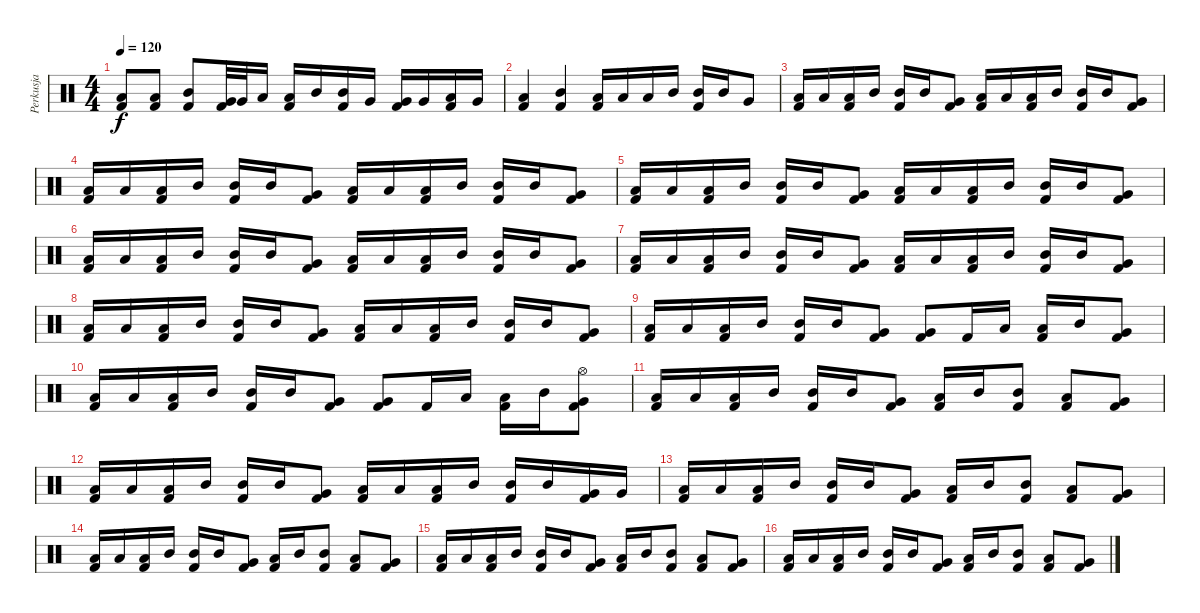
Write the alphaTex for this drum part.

\track ("Perkusja" "Perkusja") {instrument percussion}
\staff {score}
\articulation defaults
\ts (4 4)
\tempo 120
\clef neutral
\ks c
("Low Tom (hit)" "Kick (hit) 2").8{dy f} ("Low Tom (hit)" "Kick (hit) 2").8 ("Mid Tom (hit)" "Kick (hit) 2").8 ("Very Low Tom (hit)" "Kick (hit) 2").32 "Very Low Tom (hit)".32 "Low Tom (hit)".16 ("Low Tom (hit)" "Kick (hit) 2").16 "Mid Tom (hit)".16 ("Mid Tom (hit)" "Kick (hit) 2").16 "Very Low Tom (hit)".16 ("Very Low Tom (hit)" "Kick (hit) 2").16 "Very Low Tom (hit)".16 ("Low Tom (hit)" "Kick (hit) 2").16 "Very Low Tom (hit)".16 |
("Low Tom (hit)" "Kick (hit) 2").4 ("Mid Tom (hit)" "Kick (hit) 2").4 ("Low Tom (hit)" "Kick (hit) 2").16 "Low Tom (hit)".16 "Low Tom (hit)".16 "Mid Tom (hit)".16 ("Mid Tom (hit)" "Kick (hit) 2").16 "Mid Tom (hit)".16 "Very Low Tom (hit)".8 |
("Low Tom (hit)" "Kick (hit) 2").16 "Low Tom (hit)".16 ("Low Tom (hit)" "Kick (hit) 2").16 "Mid Tom (hit)".16 ("Mid Tom (hit)" "Kick (hit) 2").16 "Mid Tom (hit)".16 ("Very Low Tom (hit)" "Kick (hit) 2").8 ("Low Tom (hit)" "Kick (hit) 2").16 "Low Tom (hit)".16 ("Low Tom (hit)" "Kick (hit) 2").16 "Mid Tom (hit)".16 ("Mid Tom (hit)" "Kick (hit) 2").16 "Mid Tom (hit)".16 ("Very Low Tom (hit)" "Kick (hit) 2").8 |
("Low Tom (hit)" "Kick (hit) 2").16 "Low Tom (hit)".16 ("Low Tom (hit)" "Kick (hit) 2").16 "Mid Tom (hit)".16 ("Mid Tom (hit)" "Kick (hit) 2").16 "Mid Tom (hit)".16 ("Very Low Tom (hit)" "Kick (hit) 2").8 ("Low Tom (hit)" "Kick (hit) 2").16 "Low Tom (hit)".16 ("Low Tom (hit)" "Kick (hit) 2").16 "Mid Tom (hit)".16 ("Mid Tom (hit)" "Kick (hit) 2").16 "Mid Tom (hit)".16 ("Very Low Tom (hit)" "Kick (hit) 2").8 |
("Low Tom (hit)" "Kick (hit) 2").16 "Low Tom (hit)".16 ("Low Tom (hit)" "Kick (hit) 2").16 "Mid Tom (hit)".16 ("Mid Tom (hit)" "Kick (hit) 2").16 "Mid Tom (hit)".16 ("Very Low Tom (hit)" "Kick (hit) 2").8 ("Low Tom (hit)" "Kick (hit) 2").16 "Low Tom (hit)".16 ("Low Tom (hit)" "Kick (hit) 2").16 "Mid Tom (hit)".16 ("Mid Tom (hit)" "Kick (hit) 2").16 "Mid Tom (hit)".16 ("Very Low Tom (hit)" "Kick (hit) 2").8 |
("Low Tom (hit)" "Kick (hit) 2").16 "Low Tom (hit)".16 ("Low Tom (hit)" "Kick (hit) 2").16 "Mid Tom (hit)".16 ("Mid Tom (hit)" "Kick (hit) 2").16 "Mid Tom (hit)".16 ("Very Low Tom (hit)" "Kick (hit) 2").8 ("Low Tom (hit)" "Kick (hit) 2").16 "Low Tom (hit)".16 ("Low Tom (hit)" "Kick (hit) 2").16 "Mid Tom (hit)".16 ("Mid Tom (hit)" "Kick (hit) 2").16 "Mid Tom (hit)".16 ("Very Low Tom (hit)" "Kick (hit) 2").8 |
("Low Tom (hit)" "Kick (hit) 2").16 "Low Tom (hit)".16 ("Low Tom (hit)" "Kick (hit) 2").16 "Mid Tom (hit)".16 ("Mid Tom (hit)" "Kick (hit) 2").16 "Mid Tom (hit)".16 ("Very Low Tom (hit)" "Kick (hit) 2").8 ("Low Tom (hit)" "Kick (hit) 2").16 "Low Tom (hit)".16 ("Low Tom (hit)" "Kick (hit) 2").16 "Mid Tom (hit)".16 ("Mid Tom (hit)" "Kick (hit) 2").16 "Mid Tom (hit)".16 ("Very Low Tom (hit)" "Kick (hit) 2").8 |
("Low Tom (hit)" "Kick (hit) 2").16 "Low Tom (hit)".16 ("Low Tom (hit)" "Kick (hit) 2").16 "Mid Tom (hit)".16 ("Mid Tom (hit)" "Kick (hit) 2").16 "Mid Tom (hit)".16 ("Very Low Tom (hit)" "Kick (hit) 2").8 ("Low Tom (hit)" "Kick (hit) 2").16 "Low Tom (hit)".16 ("Low Tom (hit)" "Kick (hit) 2").16 "Mid Tom (hit)".16 ("Mid Tom (hit)" "Kick (hit) 2").16 "Mid Tom (hit)".16 ("Very Low Tom (hit)" "Kick (hit) 2").8 |
("Low Tom (hit)" "Kick (hit) 2").16 "Low Tom (hit)".16 ("Low Tom (hit)" "Kick (hit) 2").16 "Mid Tom (hit)".16 ("Mid Tom (hit)" "Kick (hit) 2").16 "Mid Tom (hit)".16 ("Very Low Tom (hit)" "Kick (hit) 2").8 ("Very Low Tom (hit)" "Kick (hit) 2").8 "Kick (hit) 2".16 "Low Tom (hit)".16 ("Low Tom (hit)" "Kick (hit) 2").16 "Mid Tom (hit)".16 ("Very Low Tom (hit)" "Kick (hit) 2").8 |
("Low Tom (hit)" "Kick (hit) 2").16 "Low Tom (hit)".16 ("Low Tom (hit)" "Kick (hit) 2").16 "Mid Tom (hit)".16 ("Mid Tom (hit)" "Kick (hit) 2").16 "Mid Tom (hit)".16 ("Very Low Tom (hit)" "Kick (hit) 2").8 ("Very Low Tom (hit)" "Kick (hit) 2").8 "Kick (hit) 2".16 "Low Tom (hit)".16 ("Low Tom (hit)" "Kick (hit) 2").16 "Mid Tom (hit)".16 ("Hi-Hat (open)" "Very Low Tom (hit)" "Kick (hit) 2").8 |
("Low Tom (hit)" "Kick (hit) 2").16 "Low Tom (hit)".16 ("Low Tom (hit)" "Kick (hit) 2").16 "Mid Tom (hit)".16 ("Mid Tom (hit)" "Kick (hit) 2").16 "Mid Tom (hit)".16 ("Very Low Tom (hit)" "Kick (hit) 2").8 ("Low Tom (hit)" "Kick (hit) 2").16 "Mid Tom (hit)".16 ("Mid Tom (hit)" "Kick (hit) 2").8 ("Low Tom (hit)" "Kick (hit) 2").8 ("Very Low Tom (hit)" "Kick (hit) 2").8 |
("Low Tom (hit)" "Kick (hit) 2").16 "Low Tom (hit)".16 ("Low Tom (hit)" "Kick (hit) 2").16 "Mid Tom (hit)".16 ("Mid Tom (hit)" "Kick (hit) 2").16 "Mid Tom (hit)".16 ("Very Low Tom (hit)" "Kick (hit) 2").8 ("Low Tom (hit)" "Kick (hit) 2").16 "Low Tom (hit)".16 ("Low Tom (hit)" "Kick (hit) 2").16 "Mid Tom (hit)".16 ("Mid Tom (hit)" "Kick (hit) 2").16 "Mid Tom (hit)".16 ("Very Low Tom (hit)" "Kick (hit) 2").16 "Very Low Tom (hit)".16 |
("Low Tom (hit)" "Kick (hit) 2").16 "Low Tom (hit)".16 ("Low Tom (hit)" "Kick (hit) 2").16 "Mid Tom (hit)".16 ("Mid Tom (hit)" "Kick (hit) 2").16 "Mid Tom (hit)".16 ("Very Low Tom (hit)" "Kick (hit) 2").8 ("Low Tom (hit)" "Kick (hit) 2").16 "Mid Tom (hit)".16 ("Mid Tom (hit)" "Kick (hit) 2").8 ("Low Tom (hit)" "Kick (hit) 2").8 ("Very Low Tom (hit)" "Kick (hit) 2").8 |
("Low Tom (hit)" "Kick (hit) 2").16 "Low Tom (hit)".16 ("Low Tom (hit)" "Kick (hit) 2").16 "Mid Tom (hit)".16 ("Mid Tom (hit)" "Kick (hit) 2").16 "Mid Tom (hit)".16 ("Very Low Tom (hit)" "Kick (hit) 2").8 ("Low Tom (hit)" "Kick (hit) 2").16 "Mid Tom (hit)".16 ("Mid Tom (hit)" "Kick (hit) 2").8 ("Low Tom (hit)" "Kick (hit) 2").8 ("Very Low Tom (hit)" "Kick (hit) 2").8 |
("Low Tom (hit)" "Kick (hit) 2").16 "Low Tom (hit)".16 ("Low Tom (hit)" "Kick (hit) 2").16 "Mid Tom (hit)".16 ("Mid Tom (hit)" "Kick (hit) 2").16 "Mid Tom (hit)".16 ("Very Low Tom (hit)" "Kick (hit) 2").8 ("Low Tom (hit)" "Kick (hit) 2").16 "Mid Tom (hit)".16 ("Mid Tom (hit)" "Kick (hit) 2").8 ("Low Tom (hit)" "Kick (hit) 2").8 ("Very Low Tom (hit)" "Kick (hit) 2").8 |
("Low Tom (hit)" "Kick (hit) 2").16 "Low Tom (hit)".16 ("Low Tom (hit)" "Kick (hit) 2").16 "Mid Tom (hit)".16 ("Mid Tom (hit)" "Kick (hit) 2").16 "Mid Tom (hit)".16 ("Very Low Tom (hit)" "Kick (hit) 2").8 ("Low Tom (hit)" "Kick (hit) 2").16 "Mid Tom (hit)".16 ("Mid Tom (hit)" "Kick (hit) 2").8 ("Low Tom (hit)" "Kick (hit) 2").8 ("Very Low Tom (hit)" "Kick (hit) 2").8
